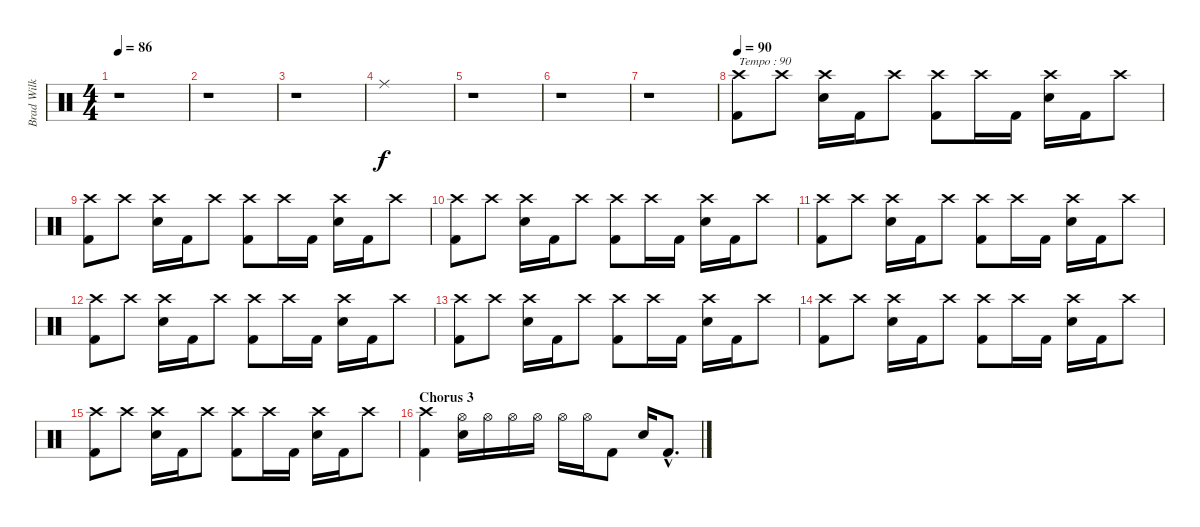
\track ("Brad Wilk / Drums" "Brad Wilk ") {instrument percussion}
\staff {score}
\articulation defaults
\ts (4 4)
\tempo 86
\clef neutral
\ks c
r.1{dy f} |
r.1 |
r.1 |
"Ride (middle)".1 |
r.1 |
r.1 |
r.1 |
\tempo 90
("Crash high (hit)" "Kick (hit) 2").8{txt "Tempo : 90"} "Crash high (hit)".8 ("Crash high (hit)" "Electric Snare (hit)").16 "Kick (hit) 2".16 "Crash high (hit)".8 ("Crash high (hit)" "Kick (hit) 2").8 "Crash high (hit)".16 "Kick (hit) 2".16 ("Crash high (hit)" "Electric Snare (hit)").16 "Kick (hit) 2".16 "Crash high (hit)".8 |
("Crash high (hit)" "Kick (hit) 2").8 "Crash high (hit)".8 ("Crash high (hit)" "Electric Snare (hit)").16 "Kick (hit) 2".16 "Crash high (hit)".8 ("Crash high (hit)" "Kick (hit) 2").8 "Crash high (hit)".16 "Kick (hit) 2".16 ("Crash high (hit)" "Electric Snare (hit)").16 "Kick (hit) 2".16 "Crash high (hit)".8 |
("Crash high (hit)" "Kick (hit) 2").8 "Crash high (hit)".8 ("Crash high (hit)" "Electric Snare (hit)").16 "Kick (hit) 2".16 "Crash high (hit)".8 ("Crash high (hit)" "Kick (hit) 2").8 "Crash high (hit)".16 "Kick (hit) 2".16 ("Crash high (hit)" "Electric Snare (hit)").16 "Kick (hit) 2".16 "Crash high (hit)".8 |
("Crash high (hit)" "Kick (hit) 2").8 "Crash high (hit)".8 ("Crash high (hit)" "Electric Snare (hit)").16 "Kick (hit) 2".16 "Crash high (hit)".8 ("Crash high (hit)" "Kick (hit) 2").8 "Crash high (hit)".16 "Kick (hit) 2".16 ("Crash high (hit)" "Electric Snare (hit)").16 "Kick (hit) 2".16 "Crash high (hit)".8 |
("Crash high (hit)" "Kick (hit) 2").8 "Crash high (hit)".8 ("Crash high (hit)" "Electric Snare (hit)").16 "Kick (hit) 2".16 "Crash high (hit)".8 ("Crash high (hit)" "Kick (hit) 2").8 "Crash high (hit)".16 "Kick (hit) 2".16 ("Crash high (hit)" "Electric Snare (hit)").16 "Kick (hit) 2".16 "Crash high (hit)".8 |
("Crash high (hit)" "Kick (hit) 2").8 "Crash high (hit)".8 ("Crash high (hit)" "Electric Snare (hit)").16 "Kick (hit) 2".16 "Crash high (hit)".8 ("Crash high (hit)" "Kick (hit) 2").8 "Crash high (hit)".16 "Kick (hit) 2".16 ("Crash high (hit)" "Electric Snare (hit)").16 "Kick (hit) 2".16 "Crash high (hit)".8 |
("Crash high (hit)" "Kick (hit) 2").8 "Crash high (hit)".8 ("Crash high (hit)" "Electric Snare (hit)").16 "Kick (hit) 2".16 "Crash high (hit)".8 ("Crash high (hit)" "Kick (hit) 2").8 "Crash high (hit)".16 "Kick (hit) 2".16 ("Crash high (hit)" "Electric Snare (hit)").16 "Kick (hit) 2".16 "Crash high (hit)".8 |
("Crash high (hit)" "Kick (hit) 2").8 "Crash high (hit)".8 ("Crash high (hit)" "Electric Snare (hit)").16 "Kick (hit) 2".16 "Crash high (hit)".8 ("Crash high (hit)" "Kick (hit) 2").8 "Crash high (hit)".16 "Kick (hit) 2".16 ("Crash high (hit)" "Electric Snare (hit)").16 "Kick (hit) 2".16 "Crash high (hit)".8 |
\section ("" "Chorus 3")
("Crash high (hit)" "Kick (hit) 2").4 ("Hi-Hat (open)" "Electric Snare (hit)").16 "Hi-Hat (open)".16 "Hi-Hat (open)".16 "Hi-Hat (open)".16 "Hi-Hat (open)".16 "Hi-Hat (open)".16 "Kick (hit) 2".8 "Electric Snare (hit)".16 "Kick (hit) 2"{hac}.8{d}
